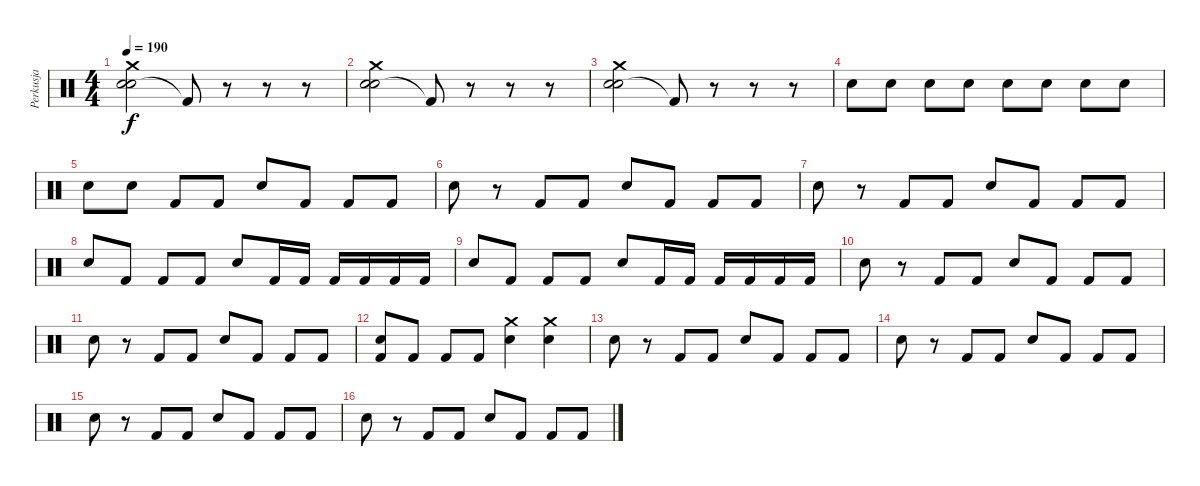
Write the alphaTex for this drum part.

\track ("Perkusja" "Perkusja") {instrument percussion}
\staff {score}
\articulation defaults
\ts (4 4)
\tempo 190
\clef neutral
\ks c
("Snare (hit) 2" "Electric Snare (hit)" "Crash medium (hit)").2{dy f} "Kick (hit) 2"{t}.8 r.8 r.8 r.8 |
("Snare (hit) 2" "Electric Snare (hit)" "Crash medium (hit)").2 "Kick (hit) 2"{t}.8 r.8 r.8 r.8 |
("Snare (hit) 2" "Electric Snare (hit)" "Crash medium (hit)").2 "Kick (hit) 2"{t}.8 r.8 r.8 r.8 |
"Electric Snare (hit)".8{balance 16} "Electric Snare (hit)".8{balance 14} "Electric Snare (hit)".8{balance 12} "Electric Snare (hit)".8{balance 10} "Electric Snare (hit)".8{balance 6} "Electric Snare (hit)".8{balance 4} "Electric Snare (hit)".8{balance 2} "Electric Snare (hit)".8{balance 0} |
"Electric Snare (hit)".8{balance 8} "Electric Snare (hit)".8 "Kick (hit) 2".8 "Kick (hit) 2".8 "Electric Snare (hit)".8 "Kick (hit) 2".8 "Kick (hit) 2".8 "Kick (hit) 2".8 |
"Electric Snare (hit)".8 r.8 "Kick (hit) 2".8 "Kick (hit) 2".8 "Electric Snare (hit)".8 "Kick (hit) 2".8 "Kick (hit) 2".8 "Kick (hit) 2".8 |
"Electric Snare (hit)".8 r.8 "Kick (hit) 2".8 "Kick (hit) 2".8 "Electric Snare (hit)".8 "Kick (hit) 2".8 "Kick (hit) 2".8 "Kick (hit) 2".8 |
"Electric Snare (hit)".8 "Kick (hit) 2".8 "Kick (hit) 2".8 "Kick (hit) 2".8 "Electric Snare (hit)".8 "Kick (hit) 2".16 "Kick (hit) 2".16 "Kick (hit) 2".16 "Kick (hit) 2".16 "Kick (hit) 2".16 "Kick (hit) 2".16 |
"Electric Snare (hit)".8 "Kick (hit) 2".8 "Kick (hit) 2".8 "Kick (hit) 2".8 "Electric Snare (hit)".8 "Kick (hit) 2".16 "Kick (hit) 2".16 "Kick (hit) 2".16 "Kick (hit) 2".16 "Kick (hit) 2".16 "Kick (hit) 2".16 |
"Electric Snare (hit)".8 r.8 "Kick (hit) 2".8 "Kick (hit) 2".8 "Electric Snare (hit)".8 "Kick (hit) 2".8 "Kick (hit) 2".8 "Kick (hit) 2".8 |
"Electric Snare (hit)".8 r.8 "Kick (hit) 2".8 "Kick (hit) 2".8 "Electric Snare (hit)".8 "Kick (hit) 2".8 "Kick (hit) 2".8 "Kick (hit) 2".8 |
("Electric Snare (hit)" "Kick (hit) 2").8 "Kick (hit) 2".8 "Kick (hit) 2".8 "Kick (hit) 2".8 ("Crash medium (hit)" "Electric Snare (hit)").4 ("Crash medium (hit)" "Electric Snare (hit)").4 |
"Electric Snare (hit)".8 r.8 "Kick (hit) 2".8 "Kick (hit) 2".8 "Electric Snare (hit)".8 "Kick (hit) 2".8 "Kick (hit) 2".8 "Kick (hit) 2".8 |
"Electric Snare (hit)".8 r.8 "Kick (hit) 2".8 "Kick (hit) 2".8 "Electric Snare (hit)".8 "Kick (hit) 2".8 "Kick (hit) 2".8 "Kick (hit) 2".8 |
"Electric Snare (hit)".8 r.8 "Kick (hit) 2".8 "Kick (hit) 2".8 "Electric Snare (hit)".8 "Kick (hit) 2".8 "Kick (hit) 2".8 "Kick (hit) 2".8 |
"Electric Snare (hit)".8 r.8 "Kick (hit) 2".8 "Kick (hit) 2".8 "Electric Snare (hit)".8 "Kick (hit) 2".8 "Kick (hit) 2".8 "Kick (hit) 2".8
